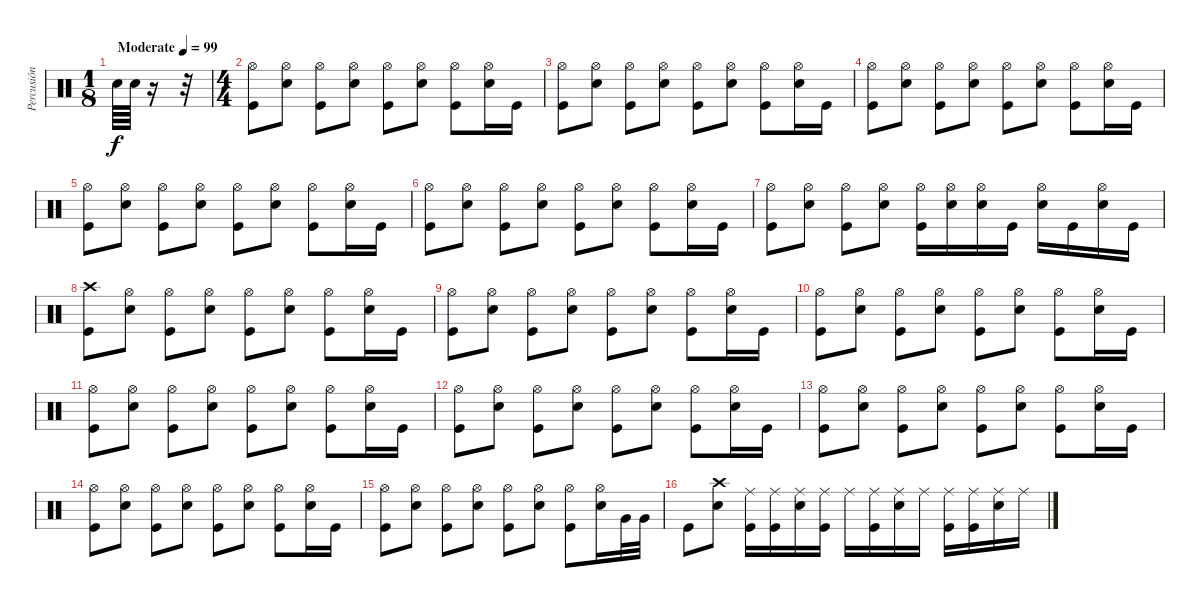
\track ("Percusión" "Percusión") {instrument percussion}
\staff {score}
\articulation defaults
\ts (1 8)
\tempo (99 "Moderate")
\clef neutral
\ks c "Snare (hit) 2".64{dy f} "Snare (hit) 2".64
r.16 r.32 |
\ts (4 4)
("Kick (hit)" "Hi-Hat (open)").8 ("Snare (hit) 2" "Hi-Hat (open)").8 ("Kick (hit)" "Hi-Hat (open)").8 ("Snare (hit) 2" "Hi-Hat (open)").8 ("Kick (hit)" "Hi-Hat (open)").8 ("Snare (hit) 2" "Hi-Hat (open)").8 ("Kick (hit)" "Hi-Hat (open)").8 ("Snare (hit) 2" "Hi-Hat (open)").16 "Kick (hit)".16 |
("Kick (hit)" "Hi-Hat (open)").8 ("Snare (hit) 2" "Hi-Hat (open)").8 ("Kick (hit)" "Hi-Hat (open)").8 ("Snare (hit) 2" "Hi-Hat (open)").8 ("Kick (hit)" "Hi-Hat (open)").8 ("Snare (hit) 2" "Hi-Hat (open)").8 ("Kick (hit)" "Hi-Hat (open)").8 ("Snare (hit) 2" "Hi-Hat (open)").16 "Kick (hit)".16 |
("Kick (hit)" "Hi-Hat (open)").8 ("Snare (hit) 2" "Hi-Hat (open)").8 ("Kick (hit)" "Hi-Hat (open)").8 ("Snare (hit) 2" "Hi-Hat (open)").8 ("Kick (hit)" "Hi-Hat (open)").8 ("Snare (hit) 2" "Hi-Hat (open)").8 ("Kick (hit)" "Hi-Hat (open)").8 ("Snare (hit) 2" "Hi-Hat (open)").16 "Kick (hit)".16 |
("Kick (hit)" "Hi-Hat (open)").8 ("Snare (hit) 2" "Hi-Hat (open)").8 ("Kick (hit)" "Hi-Hat (open)").8 ("Snare (hit) 2" "Hi-Hat (open)").8 ("Kick (hit)" "Hi-Hat (open)").8 ("Snare (hit) 2" "Hi-Hat (open)").8 ("Kick (hit)" "Hi-Hat (open)").8 ("Snare (hit) 2" "Hi-Hat (open)").16 "Kick (hit)".16 |
("Kick (hit)" "Hi-Hat (open)").8 ("Snare (hit) 2" "Hi-Hat (open)").8 ("Kick (hit)" "Hi-Hat (open)").8 ("Snare (hit) 2" "Hi-Hat (open)").8 ("Kick (hit)" "Hi-Hat (open)").8 ("Snare (hit) 2" "Hi-Hat (open)").8 ("Kick (hit)" "Hi-Hat (open)").8 ("Snare (hit) 2" "Hi-Hat (open)").16 "Kick (hit)".16 |
("Kick (hit)" "Hi-Hat (open)").8 ("Snare (hit) 2" "Hi-Hat (open)").8 ("Kick (hit)" "Hi-Hat (open)").8 ("Snare (hit) 2" "Hi-Hat (open)").8 ("Kick (hit)" "Hi-Hat (open)").16 ("Snare (hit) 2" "Hi-Hat (open)").16 ("Snare (hit) 2" "Hi-Hat (open)").16 "Kick (hit)".16 ("Snare (hit) 2" "Hi-Hat (open)").16 "Kick (hit)".16 ("Snare (hit) 2" "Hi-Hat (open)").16 "Kick (hit)".16 |
("Kick (hit)" "Crash high (hit)").8 ("Snare (hit) 2" "Hi-Hat (open)").8 ("Kick (hit)" "Hi-Hat (open)").8 ("Snare (hit) 2" "Hi-Hat (open)").8 ("Kick (hit)" "Hi-Hat (open)").8 ("Snare (hit) 2" "Hi-Hat (open)").8 ("Kick (hit)" "Hi-Hat (open)").8 ("Snare (hit) 2" "Hi-Hat (open)").16 "Kick (hit)".16 |
("Kick (hit)" "Hi-Hat (open)").8 ("Snare (hit) 2" "Hi-Hat (open)").8 ("Kick (hit)" "Hi-Hat (open)").8 ("Snare (hit) 2" "Hi-Hat (open)").8 ("Kick (hit)" "Hi-Hat (open)").8 ("Snare (hit) 2" "Hi-Hat (open)").8 ("Kick (hit)" "Hi-Hat (open)").8 ("Snare (hit) 2" "Hi-Hat (open)").16 "Kick (hit)".16 |
("Kick (hit)" "Hi-Hat (open)").8 ("Snare (hit) 2" "Hi-Hat (open)").8 ("Kick (hit)" "Hi-Hat (open)").8 ("Snare (hit) 2" "Hi-Hat (open)").8 ("Kick (hit)" "Hi-Hat (open)").8 ("Snare (hit) 2" "Hi-Hat (open)").8 ("Kick (hit)" "Hi-Hat (open)").8 ("Snare (hit) 2" "Hi-Hat (open)").16 "Kick (hit)".16 |
("Kick (hit)" "Hi-Hat (open)").8 ("Snare (hit) 2" "Hi-Hat (open)").8 ("Kick (hit)" "Hi-Hat (open)").8 ("Snare (hit) 2" "Hi-Hat (open)").8 ("Kick (hit)" "Hi-Hat (open)").8 ("Snare (hit) 2" "Hi-Hat (open)").8 ("Kick (hit)" "Hi-Hat (open)").8 ("Snare (hit) 2" "Hi-Hat (open)").16 "Kick (hit)".16 |
("Kick (hit)" "Hi-Hat (open)").8 ("Snare (hit) 2" "Hi-Hat (open)").8 ("Kick (hit)" "Hi-Hat (open)").8 ("Snare (hit) 2" "Hi-Hat (open)").8 ("Kick (hit)" "Hi-Hat (open)").8 ("Snare (hit) 2" "Hi-Hat (open)").8 ("Kick (hit)" "Hi-Hat (open)").8 ("Snare (hit) 2" "Hi-Hat (open)").16 "Kick (hit)".16 |
("Kick (hit)" "Hi-Hat (open)").8 ("Snare (hit) 2" "Hi-Hat (open)").8 ("Kick (hit)" "Hi-Hat (open)").8 ("Snare (hit) 2" "Hi-Hat (open)").8 ("Kick (hit)" "Hi-Hat (open)").8 ("Snare (hit) 2" "Hi-Hat (open)").8 ("Kick (hit)" "Hi-Hat (open)").8 ("Snare (hit) 2" "Hi-Hat (open)").16 "Kick (hit)".16 |
("Kick (hit)" "Hi-Hat (open)").8 ("Snare (hit) 2" "Hi-Hat (open)").8 ("Kick (hit)" "Hi-Hat (open)").8 ("Snare (hit) 2" "Hi-Hat (open)").8 ("Kick (hit)" "Hi-Hat (open)").8 ("Snare (hit) 2" "Hi-Hat (open)").8 ("Kick (hit)" "Hi-Hat (open)").8 ("Snare (hit) 2" "Hi-Hat (open)").16 "Kick (hit)".16 |
("Kick (hit)" "Hi-Hat (open)").8 ("Snare (hit) 2" "Hi-Hat (open)").8 ("Kick (hit)" "Hi-Hat (open)").8 ("Snare (hit) 2" "Hi-Hat (open)").8 ("Kick (hit)" "Hi-Hat (open)").8 ("Snare (hit) 2" "Hi-Hat (open)").8 ("Kick (hit)" "Hi-Hat (open)").8 ("Snare (hit) 2" "Hi-Hat (open)").16 "Very Low Tom (hit)".32 "Very Low Tom (hit)".32 |
"Kick (hit)".8 ("Snare (hit) 2" "Crash high (hit)").8 ("Kick (hit)" "Ride (middle)").16 ("Kick (hit)" "Ride (middle)").16 ("Snare (hit) 2" "Ride (middle)").16 ("Kick (hit)" "Ride (middle)").16 "Ride (middle)".16 ("Kick (hit)" "Ride (middle)").16 ("Snare (hit) 2" "Ride (middle)").16 "Ride (middle)".16 ("Kick (hit)" "Ride (middle)").16 ("Kick (hit)" "Ride (middle)").16 ("Snare (hit) 2" "Ride (middle)").16 "Ride (middle)".16
